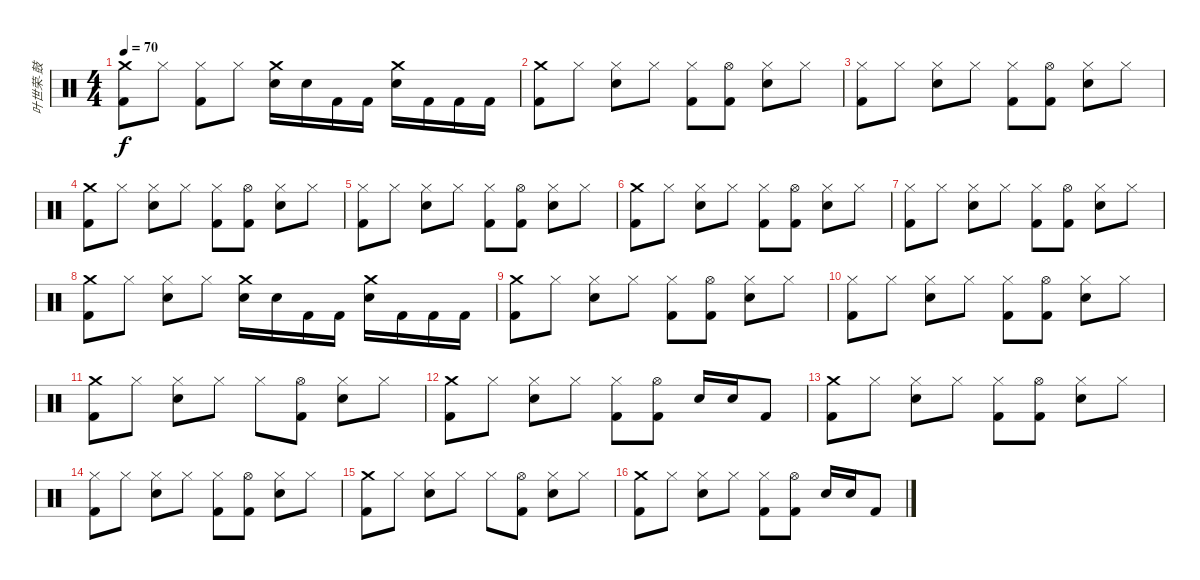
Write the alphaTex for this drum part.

\track ("叶世荣-鼓" "叶世荣-鼓") {instrument percussion}
\staff {score}
\articulation defaults
\ts (4 4)
\tempo 70
\clef neutral
\ks c
("Crash medium (hit)" "Kick (hit) 2").8{dy f} "Hi-Hat (closed)".8 ("Hi-Hat (closed)" "Kick (hit) 2").8 "Hi-Hat (closed)".8 ("Crash medium (hit)" "Snare (hit) 2").16 "Snare (hit) 2".16 "Kick (hit) 2".16 "Kick (hit) 2".16 ("Crash medium (hit)" "Snare (hit) 2").16 "Kick (hit) 2".16 "Kick (hit) 2".16 "Kick (hit) 2".16 |
("Crash medium (hit)" "Kick (hit) 2").8 "Hi-Hat (closed)".8 ("Hi-Hat (closed)" "Snare (hit) 2").8 "Hi-Hat (closed)".8 ("Hi-Hat (closed)" "Kick (hit) 2").8 ("Hi-Hat (open)" "Kick (hit) 2").8 ("Hi-Hat (closed)" "Snare (hit) 2").8 "Hi-Hat (closed)".8 |
("Hi-Hat (closed)" "Kick (hit) 2").8 "Hi-Hat (closed)".8 ("Hi-Hat (closed)" "Snare (hit) 2").8 "Hi-Hat (closed)".8 ("Hi-Hat (closed)" "Kick (hit) 2").8 ("Hi-Hat (open)" "Kick (hit) 2").8 ("Hi-Hat (closed)" "Snare (hit) 2").8 "Hi-Hat (closed)".8 |
("Crash medium (hit)" "Kick (hit) 2").8 "Hi-Hat (closed)".8 ("Hi-Hat (closed)" "Snare (hit) 2").8 "Hi-Hat (closed)".8 ("Hi-Hat (closed)" "Kick (hit) 2").8 ("Hi-Hat (open)" "Kick (hit) 2").8 ("Hi-Hat (closed)" "Snare (hit) 2").8 "Hi-Hat (closed)".8 |
("Hi-Hat (closed)" "Kick (hit) 2").8 "Hi-Hat (closed)".8 ("Hi-Hat (closed)" "Snare (hit) 2").8 "Hi-Hat (closed)".8 ("Hi-Hat (closed)" "Kick (hit) 2").8 ("Hi-Hat (open)" "Kick (hit) 2").8 ("Hi-Hat (closed)" "Snare (hit) 2").8 "Hi-Hat (closed)".8 |
("Crash medium (hit)" "Kick (hit) 2").8 "Hi-Hat (closed)".8 ("Hi-Hat (closed)" "Snare (hit) 2").8 "Hi-Hat (closed)".8 ("Hi-Hat (closed)" "Kick (hit) 2").8 ("Hi-Hat (open)" "Kick (hit) 2").8 ("Hi-Hat (closed)" "Snare (hit) 2").8 "Hi-Hat (closed)".8 |
("Hi-Hat (closed)" "Kick (hit) 2").8 "Hi-Hat (closed)".8 ("Hi-Hat (closed)" "Snare (hit) 2").8 "Hi-Hat (closed)".8 ("Hi-Hat (closed)" "Kick (hit) 2").8 ("Hi-Hat (open)" "Kick (hit) 2").8 ("Hi-Hat (closed)" "Snare (hit) 2").8 "Hi-Hat (closed)".8 |
("Crash medium (hit)" "Kick (hit) 2").8 "Hi-Hat (closed)".8 ("Hi-Hat (closed)" "Snare (hit) 2").8 "Hi-Hat (closed)".8 ("Crash medium (hit)" "Snare (hit) 2").16 "Snare (hit) 2".16 "Kick (hit) 2".16 "Kick (hit) 2".16 ("Crash medium (hit)" "Snare (hit) 2").16 "Kick (hit) 2".16 "Kick (hit) 2".16 "Kick (hit) 2".16 |
("Crash medium (hit)" "Kick (hit) 2").8 "Hi-Hat (closed)".8 ("Hi-Hat (closed)" "Snare (hit) 2").8 "Hi-Hat (closed)".8 ("Hi-Hat (closed)" "Kick (hit) 2").8 ("Hi-Hat (open)" "Kick (hit) 2").8 ("Hi-Hat (closed)" "Snare (hit) 2").8 "Hi-Hat (closed)".8 |
("Hi-Hat (closed)" "Kick (hit) 2").8 "Hi-Hat (closed)".8 ("Hi-Hat (closed)" "Snare (hit) 2").8 "Hi-Hat (closed)".8 ("Hi-Hat (closed)" "Kick (hit) 2").8 ("Hi-Hat (open)" "Kick (hit) 2").8 ("Hi-Hat (closed)" "Snare (hit) 2").8 "Hi-Hat (closed)".8 |
("Crash medium (hit)" "Kick (hit) 2").8 "Hi-Hat (closed)".8 ("Hi-Hat (closed)" "Snare (hit) 2").8 "Hi-Hat (closed)".8 "Hi-Hat (closed)".8 ("Hi-Hat (open)" "Kick (hit) 2").8 ("Hi-Hat (closed)" "Snare (hit) 2").8 "Hi-Hat (closed)".8 |
("Crash medium (hit)" "Kick (hit) 2").8 "Hi-Hat (closed)".8 ("Hi-Hat (closed)" "Snare (hit) 2").8 "Hi-Hat (closed)".8 ("Hi-Hat (closed)" "Kick (hit) 2").8 ("Hi-Hat (open)" "Kick (hit) 2").8 "Snare (hit) 2".16 "Snare (hit) 2".16 "Kick (hit) 2".8 |
("Crash medium (hit)" "Kick (hit) 2").8 "Hi-Hat (closed)".8 ("Hi-Hat (closed)" "Snare (hit) 2").8 "Hi-Hat (closed)".8 ("Hi-Hat (closed)" "Kick (hit) 2").8 ("Hi-Hat (open)" "Kick (hit) 2").8 ("Hi-Hat (closed)" "Snare (hit) 2").8 "Hi-Hat (closed)".8 |
("Hi-Hat (closed)" "Kick (hit) 2").8 "Hi-Hat (closed)".8 ("Hi-Hat (closed)" "Snare (hit) 2").8 "Hi-Hat (closed)".8 ("Hi-Hat (closed)" "Kick (hit) 2").8 ("Hi-Hat (open)" "Kick (hit) 2").8 ("Hi-Hat (closed)" "Snare (hit) 2").8 "Hi-Hat (closed)".8 |
("Crash medium (hit)" "Kick (hit) 2").8 "Hi-Hat (closed)".8 ("Hi-Hat (closed)" "Snare (hit) 2").8 "Hi-Hat (closed)".8 "Hi-Hat (closed)".8 ("Hi-Hat (open)" "Kick (hit) 2").8 ("Hi-Hat (closed)" "Snare (hit) 2").8 "Hi-Hat (closed)".8 |
("Crash medium (hit)" "Kick (hit) 2").8 "Hi-Hat (closed)".8 ("Hi-Hat (closed)" "Snare (hit) 2").8 "Hi-Hat (closed)".8 ("Hi-Hat (closed)" "Kick (hit) 2").8 ("Hi-Hat (open)" "Kick (hit) 2").8 "Snare (hit) 2".16 "Snare (hit) 2".16 "Kick (hit) 2".8
